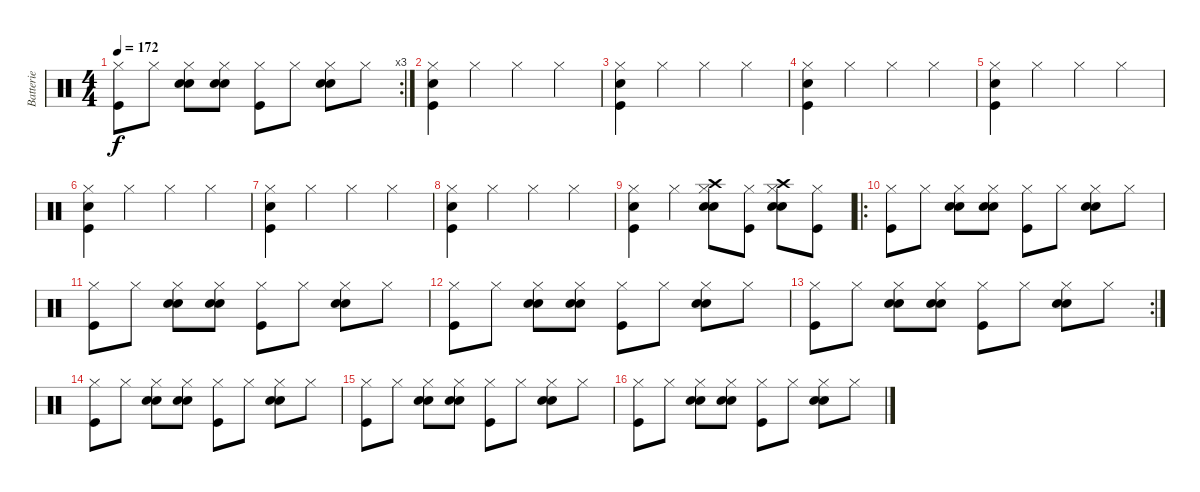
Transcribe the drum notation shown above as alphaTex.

\track ("Batterie" "Batterie") {instrument percussion}
\staff {score}
\articulation defaults
\rc 3
\ts (4 4)
\tempo 172
\clef neutral
\ks c
("Hi-Hat (closed)" "Kick (hit)").8{dy f} "Hi-Hat (closed)".8 ("Electric Snare (hit)" "Hi-Hat (closed)" "Snare (hit) 2").8 ("Electric Snare (hit)" "Hi-Hat (closed)" "Snare (hit) 2").8 ("Hi-Hat (closed)" "Kick (hit)").8 "Hi-Hat (closed)".8 ("Electric Snare (hit)" "Hi-Hat (closed)" "Snare (hit) 2").8 "Hi-Hat (closed)".8 |
("Hi-Hat (closed)" "Snare (hit) 2" "Kick (hit)").4 "Hi-Hat (closed)".4 "Hi-Hat (closed)".4 "Hi-Hat (closed)".4 |
("Hi-Hat (closed)" "Snare (hit) 2" "Kick (hit)").4 "Hi-Hat (closed)".4 "Hi-Hat (closed)".4 "Hi-Hat (closed)".4 |
("Hi-Hat (closed)" "Snare (hit) 2" "Kick (hit)").4 "Hi-Hat (closed)".4 "Hi-Hat (closed)".4 "Hi-Hat (closed)".4 |
("Hi-Hat (closed)" "Snare (hit) 2" "Kick (hit)").4 "Hi-Hat (closed)".4 "Hi-Hat (closed)".4 "Hi-Hat (closed)".4 |
("Hi-Hat (closed)" "Snare (hit) 2" "Kick (hit)").4 "Hi-Hat (closed)".4 "Hi-Hat (closed)".4 "Hi-Hat (closed)".4 |
("Hi-Hat (closed)" "Snare (hit) 2" "Kick (hit)").4 "Hi-Hat (closed)".4 "Hi-Hat (closed)".4 "Hi-Hat (closed)".4 |
("Hi-Hat (closed)" "Snare (hit) 2" "Kick (hit)").4 "Hi-Hat (closed)".4 "Hi-Hat (closed)".4 "Hi-Hat (closed)".4 |
("Hi-Hat (closed)" "Snare (hit) 2" "Kick (hit)").4 "Hi-Hat (closed)".4 ("Crash high (hit)" "Snare (hit) 2" "Hi-Hat (closed)" "Electric Snare (hit)").8 ("Hi-Hat (closed)" "Kick (hit)").8 ("Crash high (hit)" "Snare (hit) 2" "Hi-Hat (closed)" "Electric Snare (hit)").8 ("Hi-Hat (closed)" "Kick (hit)").8 |
\ro
("Hi-Hat (closed)" "Kick (hit)").8 "Hi-Hat (closed)".8 ("Electric Snare (hit)" "Hi-Hat (closed)" "Snare (hit) 2").8 ("Electric Snare (hit)" "Hi-Hat (closed)" "Snare (hit) 2").8 ("Hi-Hat (closed)" "Kick (hit)").8 "Hi-Hat (closed)".8 ("Electric Snare (hit)" "Hi-Hat (closed)" "Snare (hit) 2").8 "Hi-Hat (closed)".8 |
("Hi-Hat (closed)" "Kick (hit)").8 "Hi-Hat (closed)".8 ("Electric Snare (hit)" "Hi-Hat (closed)" "Snare (hit) 2").8 ("Electric Snare (hit)" "Hi-Hat (closed)" "Snare (hit) 2").8 ("Hi-Hat (closed)" "Kick (hit)").8 "Hi-Hat (closed)".8 ("Electric Snare (hit)" "Hi-Hat (closed)" "Snare (hit) 2").8 "Hi-Hat (closed)".8 |
("Hi-Hat (closed)" "Kick (hit)").8 "Hi-Hat (closed)".8 ("Electric Snare (hit)" "Hi-Hat (closed)" "Snare (hit) 2").8 ("Electric Snare (hit)" "Hi-Hat (closed)" "Snare (hit) 2").8 ("Hi-Hat (closed)" "Kick (hit)").8 "Hi-Hat (closed)".8 ("Electric Snare (hit)" "Hi-Hat (closed)" "Snare (hit) 2").8 "Hi-Hat (closed)".8 |
\rc 2
("Hi-Hat (closed)" "Kick (hit)").8 "Hi-Hat (closed)".8 ("Electric Snare (hit)" "Hi-Hat (closed)" "Snare (hit) 2").8 ("Electric Snare (hit)" "Hi-Hat (closed)" "Snare (hit) 2").8 ("Hi-Hat (closed)" "Kick (hit)").8 "Hi-Hat (closed)".8 ("Electric Snare (hit)" "Hi-Hat (closed)" "Snare (hit) 2").8 "Hi-Hat (closed)".8 |
("Hi-Hat (closed)" "Kick (hit)").8 "Hi-Hat (closed)".8 ("Electric Snare (hit)" "Hi-Hat (closed)" "Snare (hit) 2").8 ("Electric Snare (hit)" "Hi-Hat (closed)" "Snare (hit) 2").8 ("Hi-Hat (closed)" "Kick (hit)").8 "Hi-Hat (closed)".8 ("Electric Snare (hit)" "Hi-Hat (closed)" "Snare (hit) 2").8 "Hi-Hat (closed)".8 |
("Hi-Hat (closed)" "Kick (hit)").8 "Hi-Hat (closed)".8 ("Electric Snare (hit)" "Hi-Hat (closed)" "Snare (hit) 2").8 ("Electric Snare (hit)" "Hi-Hat (closed)" "Snare (hit) 2").8 ("Hi-Hat (closed)" "Kick (hit)").8 "Hi-Hat (closed)".8 ("Electric Snare (hit)" "Hi-Hat (closed)" "Snare (hit) 2").8 "Hi-Hat (closed)".8 |
("Hi-Hat (closed)" "Kick (hit)").8 "Hi-Hat (closed)".8 ("Electric Snare (hit)" "Hi-Hat (closed)" "Snare (hit) 2").8 ("Electric Snare (hit)" "Hi-Hat (closed)" "Snare (hit) 2").8 ("Hi-Hat (closed)" "Kick (hit)").8 "Hi-Hat (closed)".8 ("Electric Snare (hit)" "Hi-Hat (closed)" "Snare (hit) 2").8 "Hi-Hat (closed)".8
